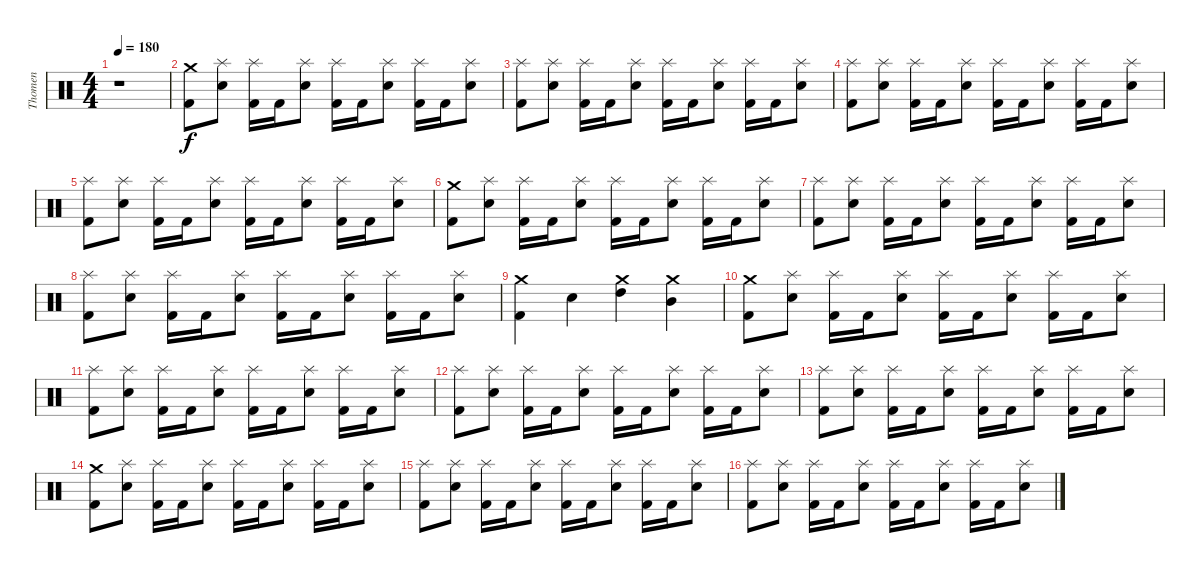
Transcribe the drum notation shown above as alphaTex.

\track ("Thomen" "Thomen") {instrument percussion}
\staff {score}
\articulation defaults
\ts (4 4)
\tempo 180
\clef neutral
\ks c
r.1{dy f} |
("Crash medium (hit)" "Kick (hit) 2").8 ("Splash (hit)" "Electric Snare (hit)").8 ("Splash (hit)" "Kick (hit) 2").16 "Kick (hit) 2".16 ("Splash (hit)" "Electric Snare (hit)").8 ("Splash (hit)" "Kick (hit) 2").16 "Kick (hit) 2".16 ("Splash (hit)" "Electric Snare (hit)").8 ("Splash (hit)" "Kick (hit) 2").16 "Kick (hit) 2".16 ("Splash (hit)" "Electric Snare (hit)").8 |
("Splash (hit)" "Kick (hit) 2").8 ("Splash (hit)" "Electric Snare (hit)").8 ("Splash (hit)" "Kick (hit) 2").16 "Kick (hit) 2".16 ("Splash (hit)" "Electric Snare (hit)").8 ("Splash (hit)" "Kick (hit) 2").16 "Kick (hit) 2".16 ("Splash (hit)" "Electric Snare (hit)").8 ("Splash (hit)" "Kick (hit) 2").16 "Kick (hit) 2".16 ("Splash (hit)" "Electric Snare (hit)").8 |
("Splash (hit)" "Kick (hit) 2").8 ("Splash (hit)" "Electric Snare (hit)").8 ("Splash (hit)" "Kick (hit) 2").16 "Kick (hit) 2".16 ("Splash (hit)" "Electric Snare (hit)").8 ("Splash (hit)" "Kick (hit) 2").16 "Kick (hit) 2".16 ("Splash (hit)" "Electric Snare (hit)").8 ("Splash (hit)" "Kick (hit) 2").16 "Kick (hit) 2".16 ("Splash (hit)" "Electric Snare (hit)").8 |
("Splash (hit)" "Kick (hit) 2").8 ("Splash (hit)" "Electric Snare (hit)").8 ("Splash (hit)" "Kick (hit) 2").16 "Kick (hit) 2".16 ("Splash (hit)" "Electric Snare (hit)").8 ("Splash (hit)" "Kick (hit) 2").16 "Kick (hit) 2".16 ("Splash (hit)" "Electric Snare (hit)").8 ("Splash (hit)" "Kick (hit) 2").16 "Kick (hit) 2".16 ("Splash (hit)" "Electric Snare (hit)").8 |
("Crash medium (hit)" "Kick (hit) 2").8 ("Splash (hit)" "Electric Snare (hit)").8 ("Splash (hit)" "Kick (hit) 2").16 "Kick (hit) 2".16 ("Splash (hit)" "Electric Snare (hit)").8 ("Splash (hit)" "Kick (hit) 2").16 "Kick (hit) 2".16 ("Splash (hit)" "Electric Snare (hit)").8 ("Splash (hit)" "Kick (hit) 2").16 "Kick (hit) 2".16 ("Splash (hit)" "Electric Snare (hit)").8 |
("Splash (hit)" "Kick (hit) 2").8 ("Splash (hit)" "Electric Snare (hit)").8 ("Splash (hit)" "Kick (hit) 2").16 "Kick (hit) 2".16 ("Splash (hit)" "Electric Snare (hit)").8 ("Splash (hit)" "Kick (hit) 2").16 "Kick (hit) 2".16 ("Splash (hit)" "Electric Snare (hit)").8 ("Splash (hit)" "Kick (hit) 2").16 "Kick (hit) 2".16 ("Splash (hit)" "Electric Snare (hit)").8 |
("Splash (hit)" "Kick (hit) 2").8 ("Splash (hit)" "Electric Snare (hit)").8 ("Splash (hit)" "Kick (hit) 2").16 "Kick (hit) 2".16 ("Splash (hit)" "Electric Snare (hit)").8 ("Splash (hit)" "Kick (hit) 2").16 "Kick (hit) 2".16 ("Splash (hit)" "Electric Snare (hit)").8 ("Splash (hit)" "Kick (hit) 2").16 "Kick (hit) 2".16 ("Splash (hit)" "Electric Snare (hit)").8 |
("Crash medium (hit)" "Kick (hit) 2").4 "Electric Snare (hit)".4 ("Crash medium (hit)" "High Tom (hit)").4 ("Crash medium (hit)" "Mid Tom (hit)").4 |
("Crash medium (hit)" "Kick (hit) 2").8 ("Splash (hit)" "Electric Snare (hit)").8 ("Splash (hit)" "Kick (hit) 2").16 "Kick (hit) 2".16 ("Splash (hit)" "Electric Snare (hit)").8 ("Splash (hit)" "Kick (hit) 2").16 "Kick (hit) 2".16 ("Splash (hit)" "Electric Snare (hit)").8 ("Splash (hit)" "Kick (hit) 2").16 "Kick (hit) 2".16 ("Splash (hit)" "Electric Snare (hit)").8 |
("Splash (hit)" "Kick (hit) 2").8 ("Splash (hit)" "Electric Snare (hit)").8 ("Splash (hit)" "Kick (hit) 2").16 "Kick (hit) 2".16 ("Splash (hit)" "Electric Snare (hit)").8 ("Splash (hit)" "Kick (hit) 2").16 "Kick (hit) 2".16 ("Splash (hit)" "Electric Snare (hit)").8 ("Splash (hit)" "Kick (hit) 2").16 "Kick (hit) 2".16 ("Splash (hit)" "Electric Snare (hit)").8 |
("Splash (hit)" "Kick (hit) 2").8 ("Splash (hit)" "Electric Snare (hit)").8 ("Splash (hit)" "Kick (hit) 2").16 "Kick (hit) 2".16 ("Splash (hit)" "Electric Snare (hit)").8 ("Splash (hit)" "Kick (hit) 2").16 "Kick (hit) 2".16 ("Splash (hit)" "Electric Snare (hit)").8 ("Splash (hit)" "Kick (hit) 2").16 "Kick (hit) 2".16 ("Splash (hit)" "Electric Snare (hit)").8 |
("Splash (hit)" "Kick (hit) 2").8 ("Splash (hit)" "Electric Snare (hit)").8 ("Splash (hit)" "Kick (hit) 2").16 "Kick (hit) 2".16 ("Splash (hit)" "Electric Snare (hit)").8 ("Splash (hit)" "Kick (hit) 2").16 "Kick (hit) 2".16 ("Splash (hit)" "Electric Snare (hit)").8 ("Splash (hit)" "Kick (hit) 2").16 "Kick (hit) 2".16 ("Splash (hit)" "Electric Snare (hit)").8 |
("Crash medium (hit)" "Kick (hit) 2").8 ("Splash (hit)" "Electric Snare (hit)").8 ("Splash (hit)" "Kick (hit) 2").16 "Kick (hit) 2".16 ("Splash (hit)" "Electric Snare (hit)").8 ("Splash (hit)" "Kick (hit) 2").16 "Kick (hit) 2".16 ("Splash (hit)" "Electric Snare (hit)").8 ("Splash (hit)" "Kick (hit) 2").16 "Kick (hit) 2".16 ("Splash (hit)" "Electric Snare (hit)").8 |
("Splash (hit)" "Kick (hit) 2").8 ("Splash (hit)" "Electric Snare (hit)").8 ("Splash (hit)" "Kick (hit) 2").16 "Kick (hit) 2".16 ("Splash (hit)" "Electric Snare (hit)").8 ("Splash (hit)" "Kick (hit) 2").16 "Kick (hit) 2".16 ("Splash (hit)" "Electric Snare (hit)").8 ("Splash (hit)" "Kick (hit) 2").16 "Kick (hit) 2".16 ("Splash (hit)" "Electric Snare (hit)").8 |
("Splash (hit)" "Kick (hit) 2").8 ("Splash (hit)" "Electric Snare (hit)").8 ("Splash (hit)" "Kick (hit) 2").16 "Kick (hit) 2".16 ("Splash (hit)" "Electric Snare (hit)").8 ("Splash (hit)" "Kick (hit) 2").16 "Kick (hit) 2".16 ("Splash (hit)" "Electric Snare (hit)").8 ("Splash (hit)" "Kick (hit) 2").16 "Kick (hit) 2".16 ("Splash (hit)" "Electric Snare (hit)").8
